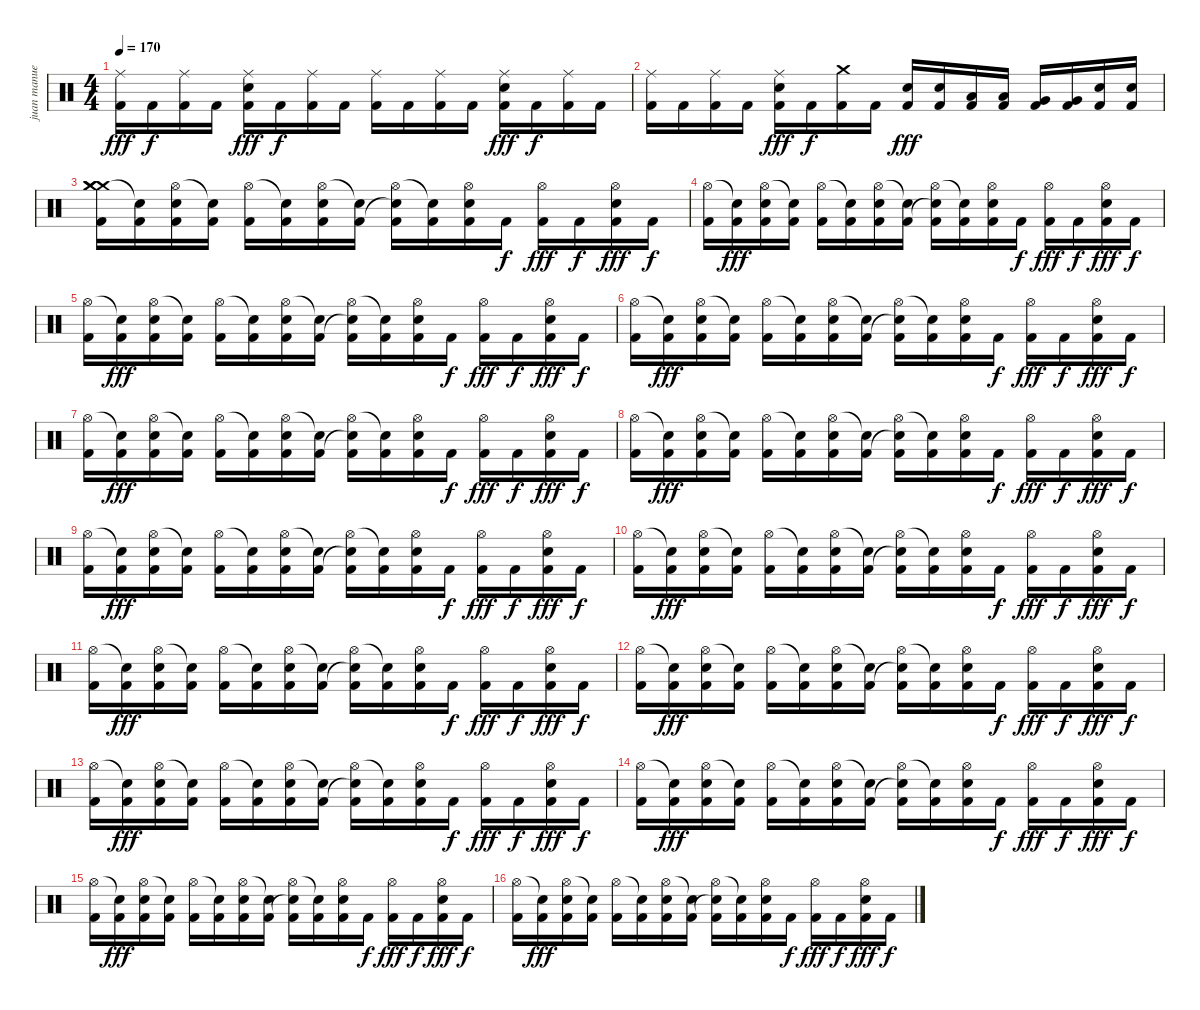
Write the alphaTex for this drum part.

\track ("juan manuel" "juan manue") {instrument percussion}
\staff {score}
\articulation defaults
\ts (4 4)
\tempo 170
\clef neutral
\ks c
("Ride (middle)" "Kick (hit) 2").16{dy fff} "Kick (hit) 2".16{dy f} ("Ride (middle)" "Kick (hit) 2").16 "Kick (hit) 2".16 ("Ride (middle)" "Snare (hit) 2" "Kick (hit) 2").16{dy fff} "Kick (hit) 2".16{dy f} ("Ride (middle)" "Kick (hit) 2").16 "Kick (hit) 2".16 ("Ride (middle)" "Kick (hit) 2").16 "Kick (hit) 2".16 ("Ride (middle)" "Kick (hit) 2").16 "Kick (hit) 2".16 ("Ride (middle)" "Snare (hit) 2" "Kick (hit) 2").16{dy fff} "Kick (hit) 2".16{dy f} ("Ride (middle)" "Kick (hit) 2").16 "Kick (hit) 2".16 |
("Ride (middle)" "Kick (hit) 2").16 "Kick (hit) 2".16 ("Ride (middle)" "Kick (hit) 2").16 "Kick (hit) 2".16 ("Ride (middle)" "Snare (hit) 2" "Kick (hit) 2").16{dy fff} "Kick (hit) 2".16{dy f} ("Crash medium (hit)" "Kick (hit) 2").16 "Kick (hit) 2".16 ("Electric Snare (hit)" "Kick (hit) 2").16{dy fff} ("Electric Snare (hit)" "Kick (hit) 2").16 ("Low Tom (hit)" "Kick (hit) 2").16 ("Low Tom (hit)" "Kick (hit) 2").16 ("Very Low Tom (hit)" "Kick (hit) 2").16 ("Very Low Tom (hit)" "Kick (hit) 2").16 ("Electric Snare (hit)" "Kick (hit) 2").16 ("Electric Snare (hit)" "Kick (hit) 2").16 |
("Crash medium (hit)" "Crash medium (hit)" "Crash medium (hit)" "Kick (hit) 2").16 ("Snare (hit)"{t} "Kick (hit) 2").16 ("Hi-Hat (open)" "Snare (hit) 2" "Kick (hit) 2").16 ("Snare (hit)"{t} "Kick (hit) 2").16 ("Hi-Hat (open)" "Kick (hit) 2").16 ("Snare (hit)"{t} "Kick (hit) 2").16 ("Hi-Hat (open)" "Snare (hit) 2" "Kick (hit) 2").16 ("Snare (hit)"{t} "Kick (hit) 2").16 ("Hi-Hat (open)" "Snare (hit)"{t} "Kick (hit) 2").16 ("Snare (hit)"{t} "Kick (hit) 2").16 ("Hi-Hat (open)" "Snare (hit) 2" "Kick (hit) 2").16 "Kick (hit) 2".16{dy f} ("Hi-Hat (open)" "Kick (hit) 2").16{dy fff} "Kick (hit) 2".16{dy f} ("Hi-Hat (open)" "Snare (hit) 2" "Kick (hit) 2").16{dy fff} "Kick (hit) 2".16{dy f} |
("Hi-Hat (open)" "Kick (hit) 2").16 ("Snare (hit)"{t} "Kick (hit) 2").16{dy fff} ("Hi-Hat (open)" "Snare (hit) 2" "Kick (hit) 2").16 ("Snare (hit)"{t} "Kick (hit) 2").16 ("Hi-Hat (open)" "Kick (hit) 2").16 ("Snare (hit)"{t} "Kick (hit) 2").16 ("Hi-Hat (open)" "Snare (hit) 2" "Kick (hit) 2").16 ("Snare (hit)"{t} "Kick (hit) 2").16 ("Hi-Hat (open)" "Snare (hit)"{t} "Kick (hit) 2").16 ("Snare (hit)"{t} "Kick (hit) 2").16 ("Hi-Hat (open)" "Snare (hit) 2" "Kick (hit) 2").16 "Kick (hit) 2".16{dy f} ("Hi-Hat (open)" "Kick (hit) 2").16{dy fff} "Kick (hit) 2".16{dy f} ("Hi-Hat (open)" "Snare (hit) 2" "Kick (hit) 2").16{dy fff} "Kick (hit) 2".16{dy f} |
("Hi-Hat (open)" "Kick (hit) 2").16 ("Snare (hit)"{t} "Kick (hit) 2").16{dy fff} ("Hi-Hat (open)" "Snare (hit) 2" "Kick (hit) 2").16 ("Snare (hit)"{t} "Kick (hit) 2").16 ("Hi-Hat (open)" "Kick (hit) 2").16 ("Snare (hit)"{t} "Kick (hit) 2").16 ("Hi-Hat (open)" "Snare (hit) 2" "Kick (hit) 2").16 ("Snare (hit)"{t} "Kick (hit) 2").16 ("Hi-Hat (open)" "Snare (hit)"{t} "Kick (hit) 2").16 ("Snare (hit)"{t} "Kick (hit) 2").16 ("Hi-Hat (open)" "Snare (hit) 2" "Kick (hit) 2").16 "Kick (hit) 2".16{dy f} ("Hi-Hat (open)" "Kick (hit) 2").16{dy fff} "Kick (hit) 2".16{dy f} ("Hi-Hat (open)" "Snare (hit) 2" "Kick (hit) 2").16{dy fff} "Kick (hit) 2".16{dy f} |
("Hi-Hat (open)" "Kick (hit) 2").16 ("Snare (hit)"{t} "Kick (hit) 2").16{dy fff} ("Hi-Hat (open)" "Snare (hit) 2" "Kick (hit) 2").16 ("Snare (hit)"{t} "Kick (hit) 2").16 ("Hi-Hat (open)" "Kick (hit) 2").16 ("Snare (hit)"{t} "Kick (hit) 2").16 ("Hi-Hat (open)" "Snare (hit) 2" "Kick (hit) 2").16 ("Snare (hit)"{t} "Kick (hit) 2").16 ("Hi-Hat (open)" "Snare (hit)"{t} "Kick (hit) 2").16 ("Snare (hit)"{t} "Kick (hit) 2").16 ("Hi-Hat (open)" "Snare (hit) 2" "Kick (hit) 2").16 "Kick (hit) 2".16{dy f} ("Hi-Hat (open)" "Kick (hit) 2").16{dy fff} "Kick (hit) 2".16{dy f} ("Hi-Hat (open)" "Snare (hit) 2" "Kick (hit) 2").16{dy fff} "Kick (hit) 2".16{dy f} |
("Hi-Hat (open)" "Kick (hit) 2").16 ("Snare (hit)"{t} "Kick (hit) 2").16{dy fff} ("Hi-Hat (open)" "Snare (hit) 2" "Kick (hit) 2").16 ("Snare (hit)"{t} "Kick (hit) 2").16 ("Hi-Hat (open)" "Kick (hit) 2").16 ("Snare (hit)"{t} "Kick (hit) 2").16 ("Hi-Hat (open)" "Snare (hit) 2" "Kick (hit) 2").16 ("Snare (hit)"{t} "Kick (hit) 2").16 ("Hi-Hat (open)" "Snare (hit)"{t} "Kick (hit) 2").16 ("Snare (hit)"{t} "Kick (hit) 2").16 ("Hi-Hat (open)" "Snare (hit) 2" "Kick (hit) 2").16 "Kick (hit) 2".16{dy f} ("Hi-Hat (open)" "Kick (hit) 2").16{dy fff} "Kick (hit) 2".16{dy f} ("Hi-Hat (open)" "Snare (hit) 2" "Kick (hit) 2").16{dy fff} "Kick (hit) 2".16{dy f} |
("Hi-Hat (open)" "Kick (hit) 2").16 ("Snare (hit)"{t} "Kick (hit) 2").16{dy fff} ("Hi-Hat (open)" "Snare (hit) 2" "Kick (hit) 2").16 ("Snare (hit)"{t} "Kick (hit) 2").16 ("Hi-Hat (open)" "Kick (hit) 2").16 ("Snare (hit)"{t} "Kick (hit) 2").16 ("Hi-Hat (open)" "Snare (hit) 2" "Kick (hit) 2").16 ("Snare (hit)"{t} "Kick (hit) 2").16 ("Hi-Hat (open)" "Snare (hit)"{t} "Kick (hit) 2").16 ("Snare (hit)"{t} "Kick (hit) 2").16 ("Hi-Hat (open)" "Snare (hit) 2" "Kick (hit) 2").16 "Kick (hit) 2".16{dy f} ("Hi-Hat (open)" "Kick (hit) 2").16{dy fff} "Kick (hit) 2".16{dy f} ("Hi-Hat (open)" "Snare (hit) 2" "Kick (hit) 2").16{dy fff} "Kick (hit) 2".16{dy f} |
("Hi-Hat (open)" "Kick (hit) 2").16 ("Snare (hit)"{t} "Kick (hit) 2").16{dy fff} ("Hi-Hat (open)" "Snare (hit) 2" "Kick (hit) 2").16 ("Snare (hit)"{t} "Kick (hit) 2").16 ("Hi-Hat (open)" "Kick (hit) 2").16 ("Snare (hit)"{t} "Kick (hit) 2").16 ("Hi-Hat (open)" "Snare (hit) 2" "Kick (hit) 2").16 ("Snare (hit)"{t} "Kick (hit) 2").16 ("Hi-Hat (open)" "Snare (hit)"{t} "Kick (hit) 2").16 ("Snare (hit)"{t} "Kick (hit) 2").16 ("Hi-Hat (open)" "Snare (hit) 2" "Kick (hit) 2").16 "Kick (hit) 2".16{dy f} ("Hi-Hat (open)" "Kick (hit) 2").16{dy fff} "Kick (hit) 2".16{dy f} ("Hi-Hat (open)" "Snare (hit) 2" "Kick (hit) 2").16{dy fff} "Kick (hit) 2".16{dy f} |
("Hi-Hat (open)" "Kick (hit) 2").16 ("Snare (hit)"{t} "Kick (hit) 2").16{dy fff} ("Hi-Hat (open)" "Snare (hit) 2" "Kick (hit) 2").16 ("Snare (hit)"{t} "Kick (hit) 2").16 ("Hi-Hat (open)" "Kick (hit) 2").16 ("Snare (hit)"{t} "Kick (hit) 2").16 ("Hi-Hat (open)" "Snare (hit) 2" "Kick (hit) 2").16 ("Snare (hit)"{t} "Kick (hit) 2").16 ("Hi-Hat (open)" "Snare (hit)"{t} "Kick (hit) 2").16 ("Snare (hit)"{t} "Kick (hit) 2").16 ("Hi-Hat (open)" "Snare (hit) 2" "Kick (hit) 2").16 "Kick (hit) 2".16{dy f} ("Hi-Hat (open)" "Kick (hit) 2").16{dy fff} "Kick (hit) 2".16{dy f} ("Hi-Hat (open)" "Snare (hit) 2" "Kick (hit) 2").16{dy fff} "Kick (hit) 2".16{dy f} |
("Hi-Hat (open)" "Kick (hit) 2").16 ("Snare (hit)"{t} "Kick (hit) 2").16{dy fff} ("Hi-Hat (open)" "Snare (hit) 2" "Kick (hit) 2").16 ("Snare (hit)"{t} "Kick (hit) 2").16 ("Hi-Hat (open)" "Kick (hit) 2").16 ("Snare (hit)"{t} "Kick (hit) 2").16 ("Hi-Hat (open)" "Snare (hit) 2" "Kick (hit) 2").16 ("Snare (hit)"{t} "Kick (hit) 2").16 ("Hi-Hat (open)" "Snare (hit)"{t} "Kick (hit) 2").16 ("Snare (hit)"{t} "Kick (hit) 2").16 ("Hi-Hat (open)" "Snare (hit) 2" "Kick (hit) 2").16 "Kick (hit) 2".16{dy f} ("Hi-Hat (open)" "Kick (hit) 2").16{dy fff} "Kick (hit) 2".16{dy f} ("Hi-Hat (open)" "Snare (hit) 2" "Kick (hit) 2").16{dy fff} "Kick (hit) 2".16{dy f} |
("Hi-Hat (open)" "Kick (hit) 2").16 ("Snare (hit)"{t} "Kick (hit) 2").16{dy fff} ("Hi-Hat (open)" "Snare (hit) 2" "Kick (hit) 2").16 ("Snare (hit)"{t} "Kick (hit) 2").16 ("Hi-Hat (open)" "Kick (hit) 2").16 ("Snare (hit)"{t} "Kick (hit) 2").16 ("Hi-Hat (open)" "Snare (hit) 2" "Kick (hit) 2").16 ("Snare (hit)"{t} "Kick (hit) 2").16 ("Hi-Hat (open)" "Snare (hit)"{t} "Kick (hit) 2").16 ("Snare (hit)"{t} "Kick (hit) 2").16 ("Hi-Hat (open)" "Snare (hit) 2" "Kick (hit) 2").16 "Kick (hit) 2".16{dy f} ("Hi-Hat (open)" "Kick (hit) 2").16{dy fff} "Kick (hit) 2".16{dy f} ("Hi-Hat (open)" "Snare (hit) 2" "Kick (hit) 2").16{dy fff} "Kick (hit) 2".16{dy f} |
("Hi-Hat (open)" "Kick (hit) 2").16 ("Snare (hit)"{t} "Kick (hit) 2").16{dy fff} ("Hi-Hat (open)" "Snare (hit) 2" "Kick (hit) 2").16 ("Snare (hit)"{t} "Kick (hit) 2").16 ("Hi-Hat (open)" "Kick (hit) 2").16 ("Snare (hit)"{t} "Kick (hit) 2").16 ("Hi-Hat (open)" "Snare (hit) 2" "Kick (hit) 2").16 ("Snare (hit)"{t} "Kick (hit) 2").16 ("Hi-Hat (open)" "Snare (hit)"{t} "Kick (hit) 2").16 ("Snare (hit)"{t} "Kick (hit) 2").16 ("Hi-Hat (open)" "Snare (hit) 2" "Kick (hit) 2").16 "Kick (hit) 2".16{dy f} ("Hi-Hat (open)" "Kick (hit) 2").16{dy fff} "Kick (hit) 2".16{dy f} ("Hi-Hat (open)" "Snare (hit) 2" "Kick (hit) 2").16{dy fff} "Kick (hit) 2".16{dy f} |
("Hi-Hat (open)" "Kick (hit) 2").16 ("Snare (hit)"{t} "Kick (hit) 2").16{dy fff} ("Hi-Hat (open)" "Snare (hit) 2" "Kick (hit) 2").16 ("Snare (hit)"{t} "Kick (hit) 2").16 ("Hi-Hat (open)" "Kick (hit) 2").16 ("Snare (hit)"{t} "Kick (hit) 2").16 ("Hi-Hat (open)" "Snare (hit) 2" "Kick (hit) 2").16 ("Snare (hit)"{t} "Kick (hit) 2").16 ("Hi-Hat (open)" "Snare (hit)"{t} "Kick (hit) 2").16 ("Snare (hit)"{t} "Kick (hit) 2").16 ("Hi-Hat (open)" "Snare (hit) 2" "Kick (hit) 2").16 "Kick (hit) 2".16{dy f} ("Hi-Hat (open)" "Kick (hit) 2").16{dy fff} "Kick (hit) 2".16{dy f} ("Hi-Hat (open)" "Snare (hit) 2" "Kick (hit) 2").16{dy fff} "Kick (hit) 2".16{dy f} |
("Hi-Hat (open)" "Kick (hit) 2").16 ("Snare (hit)"{t} "Kick (hit) 2").16{dy fff} ("Hi-Hat (open)" "Snare (hit) 2" "Kick (hit) 2").16 ("Snare (hit)"{t} "Kick (hit) 2").16 ("Hi-Hat (open)" "Kick (hit) 2").16 ("Snare (hit)"{t} "Kick (hit) 2").16 ("Hi-Hat (open)" "Snare (hit) 2" "Kick (hit) 2").16 ("Snare (hit)"{t} "Kick (hit) 2").16 ("Hi-Hat (open)" "Snare (hit)"{t} "Kick (hit) 2").16 ("Snare (hit)"{t} "Kick (hit) 2").16 ("Hi-Hat (open)" "Snare (hit) 2" "Kick (hit) 2").16 "Kick (hit) 2".16{dy f} ("Hi-Hat (open)" "Kick (hit) 2").16{dy fff} "Kick (hit) 2".16{dy f} ("Hi-Hat (open)" "Snare (hit) 2" "Kick (hit) 2").16{dy fff} "Kick (hit) 2".16{dy f} |
("Hi-Hat (open)" "Kick (hit) 2").16 ("Snare (hit)"{t} "Kick (hit) 2").16{dy fff} ("Hi-Hat (open)" "Snare (hit) 2" "Kick (hit) 2").16 ("Snare (hit)"{t} "Kick (hit) 2").16 ("Hi-Hat (open)" "Kick (hit) 2").16 ("Snare (hit)"{t} "Kick (hit) 2").16 ("Hi-Hat (open)" "Snare (hit) 2" "Kick (hit) 2").16 ("Snare (hit)"{t} "Kick (hit) 2").16 ("Hi-Hat (open)" "Snare (hit)"{t} "Kick (hit) 2").16 ("Snare (hit)"{t} "Kick (hit) 2").16 ("Hi-Hat (open)" "Snare (hit) 2" "Kick (hit) 2").16 "Kick (hit) 2".16{dy f} ("Hi-Hat (open)" "Kick (hit) 2").16{dy fff} "Kick (hit) 2".16{dy f} ("Hi-Hat (open)" "Snare (hit) 2" "Kick (hit) 2").16{dy fff} "Kick (hit) 2".16{dy f}
